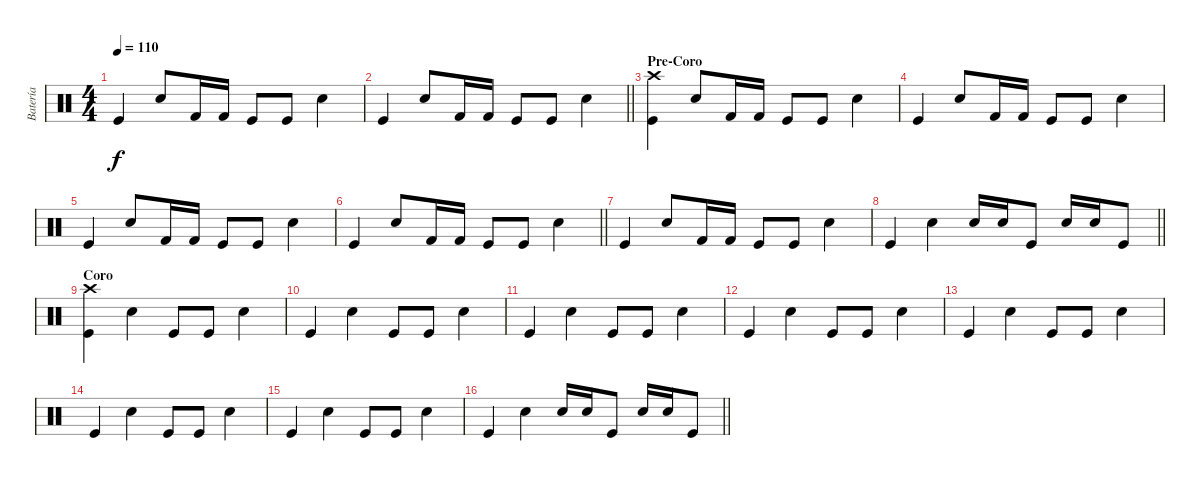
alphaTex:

\track ("Batería" "Batería") {instrument percussion}
\staff {score}
\articulation defaults
\ts (4 4)
\tempo 110
\clef neutral
\ks c "Kick (hit)".4{dy f} "Electric Snare (hit)".8 "Kick (hit) 2".16 "Kick (hit) 2".16 "Kick (hit)".8 "Kick (hit)".8 "Electric Snare (hit)".4
|
\barLineRight lightlight "Kick (hit)".4 "Electric Snare (hit)".8 "Kick (hit) 2".16 "Kick (hit) 2".16 "Kick (hit)".8 "Kick (hit)".8 "Electric Snare (hit)".4
|
\section ("" "Pre-Coro")
("Kick (hit)" "Crash high (hit)").4 "Electric Snare (hit)".8 "Kick (hit) 2".16 "Kick (hit) 2".16 "Kick (hit)".8 "Kick (hit)".8 "Electric Snare (hit)".4 |
"Kick (hit)".4 "Electric Snare (hit)".8 "Kick (hit) 2".16 "Kick (hit) 2".16 "Kick (hit)".8 "Kick (hit)".8 "Electric Snare (hit)".4 |
"Kick (hit)".4 "Electric Snare (hit)".8 "Kick (hit) 2".16 "Kick (hit) 2".16 "Kick (hit)".8 "Kick (hit)".8 "Electric Snare (hit)".4 |
\barLineRight lightlight "Kick (hit)".4 "Electric Snare (hit)".8 "Kick (hit) 2".16 "Kick (hit) 2".16 "Kick (hit)".8 "Kick (hit)".8 "Electric Snare (hit)".4
|
"Kick (hit)".4 "Electric Snare (hit)".8 "Kick (hit) 2".16 "Kick (hit) 2".16 "Kick (hit)".8 "Kick (hit)".8 "Electric Snare (hit)".4 |
\barLineRight lightlight "Kick (hit)".4 "Electric Snare (hit)".4 "Snare (hit) 2".16 "Snare (hit) 2".16 "Kick (hit)".8 "Snare (hit) 2".16 "Snare (hit) 2".16 "Kick (hit)".8
|
\section ("" "Coro")
("Kick (hit)" "Crash high (hit)").4 "Electric Snare (hit)".4 "Kick (hit)".8 "Kick (hit)".8 "Electric Snare (hit)".4 |
"Kick (hit)".4 "Electric Snare (hit)".4 "Kick (hit)".8 "Kick (hit)".8 "Electric Snare (hit)".4 |
"Kick (hit)".4 "Electric Snare (hit)".4 "Kick (hit)".8 "Kick (hit)".8 "Electric Snare (hit)".4 |
"Kick (hit)".4 "Electric Snare (hit)".4 "Kick (hit)".8 "Kick (hit)".8 "Electric Snare (hit)".4 |
"Kick (hit)".4 "Electric Snare (hit)".4 "Kick (hit)".8 "Kick (hit)".8 "Electric Snare (hit)".4 |
"Kick (hit)".4 "Electric Snare (hit)".4 "Kick (hit)".8 "Kick (hit)".8 "Electric Snare (hit)".4 |
"Kick (hit)".4 "Electric Snare (hit)".4 "Kick (hit)".8 "Kick (hit)".8 "Electric Snare (hit)".4 |
\barLineRight lightlight "Kick (hit)".4 "Electric Snare (hit)".4 "Snare (hit) 2".16 "Snare (hit) 2".16 "Kick (hit)".8 "Snare (hit) 2".16 "Snare (hit) 2".16 "Kick (hit)".8
